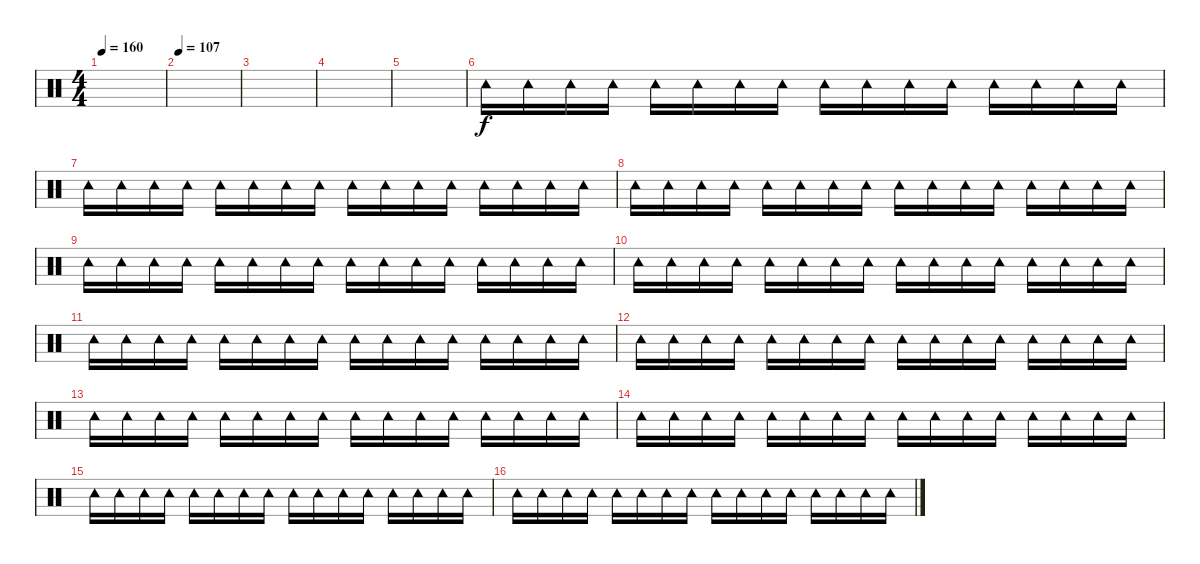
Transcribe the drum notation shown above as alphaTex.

\track "" {instrument percussion}
\staff {score}
\articulation defaults
\ts (4 4)
\tempo 160
\clef neutral
\ks c
|
\tempo 107
|
|
|
|
"Tambourine (hit)".16 "Tambourine (hit)".16 "Tambourine (hit)".16 "Tambourine (hit)".16 "Tambourine (hit)".16 "Tambourine (hit)".16 "Tambourine (hit)".16 "Tambourine (hit)".16 "Tambourine (hit)".16 "Tambourine (hit)".16 "Tambourine (hit)".16 "Tambourine (hit)".16 "Tambourine (hit)".16 "Tambourine (hit)".16 "Tambourine (hit)".16 "Tambourine (hit)".16 |
"Tambourine (hit)".16 "Tambourine (hit)".16 "Tambourine (hit)".16 "Tambourine (hit)".16 "Tambourine (hit)".16 "Tambourine (hit)".16 "Tambourine (hit)".16 "Tambourine (hit)".16 "Tambourine (hit)".16 "Tambourine (hit)".16 "Tambourine (hit)".16 "Tambourine (hit)".16 "Tambourine (hit)".16 "Tambourine (hit)".16 "Tambourine (hit)".16 "Tambourine (hit)".16 |
"Tambourine (hit)".16 "Tambourine (hit)".16 "Tambourine (hit)".16 "Tambourine (hit)".16 "Tambourine (hit)".16 "Tambourine (hit)".16 "Tambourine (hit)".16 "Tambourine (hit)".16 "Tambourine (hit)".16 "Tambourine (hit)".16 "Tambourine (hit)".16 "Tambourine (hit)".16 "Tambourine (hit)".16 "Tambourine (hit)".16 "Tambourine (hit)".16 "Tambourine (hit)".16 |
"Tambourine (hit)".16 "Tambourine (hit)".16 "Tambourine (hit)".16 "Tambourine (hit)".16 "Tambourine (hit)".16 "Tambourine (hit)".16 "Tambourine (hit)".16 "Tambourine (hit)".16 "Tambourine (hit)".16 "Tambourine (hit)".16 "Tambourine (hit)".16 "Tambourine (hit)".16 "Tambourine (hit)".16 "Tambourine (hit)".16 "Tambourine (hit)".16 "Tambourine (hit)".16 |
"Tambourine (hit)".16 "Tambourine (hit)".16 "Tambourine (hit)".16 "Tambourine (hit)".16 "Tambourine (hit)".16 "Tambourine (hit)".16 "Tambourine (hit)".16 "Tambourine (hit)".16 "Tambourine (hit)".16 "Tambourine (hit)".16 "Tambourine (hit)".16 "Tambourine (hit)".16 "Tambourine (hit)".16 "Tambourine (hit)".16 "Tambourine (hit)".16 "Tambourine (hit)".16 |
"Tambourine (hit)".16 "Tambourine (hit)".16 "Tambourine (hit)".16 "Tambourine (hit)".16 "Tambourine (hit)".16 "Tambourine (hit)".16 "Tambourine (hit)".16 "Tambourine (hit)".16 "Tambourine (hit)".16 "Tambourine (hit)".16 "Tambourine (hit)".16 "Tambourine (hit)".16 "Tambourine (hit)".16 "Tambourine (hit)".16 "Tambourine (hit)".16 "Tambourine (hit)".16 |
"Tambourine (hit)".16 "Tambourine (hit)".16 "Tambourine (hit)".16 "Tambourine (hit)".16 "Tambourine (hit)".16 "Tambourine (hit)".16 "Tambourine (hit)".16 "Tambourine (hit)".16 "Tambourine (hit)".16 "Tambourine (hit)".16 "Tambourine (hit)".16 "Tambourine (hit)".16 "Tambourine (hit)".16 "Tambourine (hit)".16 "Tambourine (hit)".16 "Tambourine (hit)".16 |
"Tambourine (hit)".16 "Tambourine (hit)".16 "Tambourine (hit)".16 "Tambourine (hit)".16 "Tambourine (hit)".16 "Tambourine (hit)".16 "Tambourine (hit)".16 "Tambourine (hit)".16 "Tambourine (hit)".16 "Tambourine (hit)".16 "Tambourine (hit)".16 "Tambourine (hit)".16 "Tambourine (hit)".16 "Tambourine (hit)".16 "Tambourine (hit)".16 "Tambourine (hit)".16 |
"Tambourine (hit)".16 "Tambourine (hit)".16 "Tambourine (hit)".16 "Tambourine (hit)".16 "Tambourine (hit)".16 "Tambourine (hit)".16 "Tambourine (hit)".16 "Tambourine (hit)".16 "Tambourine (hit)".16 "Tambourine (hit)".16 "Tambourine (hit)".16 "Tambourine (hit)".16 "Tambourine (hit)".16 "Tambourine (hit)".16 "Tambourine (hit)".16 "Tambourine (hit)".16 |
"Tambourine (hit)".16 "Tambourine (hit)".16 "Tambourine (hit)".16 "Tambourine (hit)".16 "Tambourine (hit)".16 "Tambourine (hit)".16 "Tambourine (hit)".16 "Tambourine (hit)".16 "Tambourine (hit)".16 "Tambourine (hit)".16 "Tambourine (hit)".16 "Tambourine (hit)".16 "Tambourine (hit)".16 "Tambourine (hit)".16 "Tambourine (hit)".16 "Tambourine (hit)".16 |
"Tambourine (hit)".16 "Tambourine (hit)".16 "Tambourine (hit)".16 "Tambourine (hit)".16 "Tambourine (hit)".16 "Tambourine (hit)".16 "Tambourine (hit)".16 "Tambourine (hit)".16 "Tambourine (hit)".16 "Tambourine (hit)".16 "Tambourine (hit)".16 "Tambourine (hit)".16 "Tambourine (hit)".16 "Tambourine (hit)".16 "Tambourine (hit)".16 "Tambourine (hit)".16
